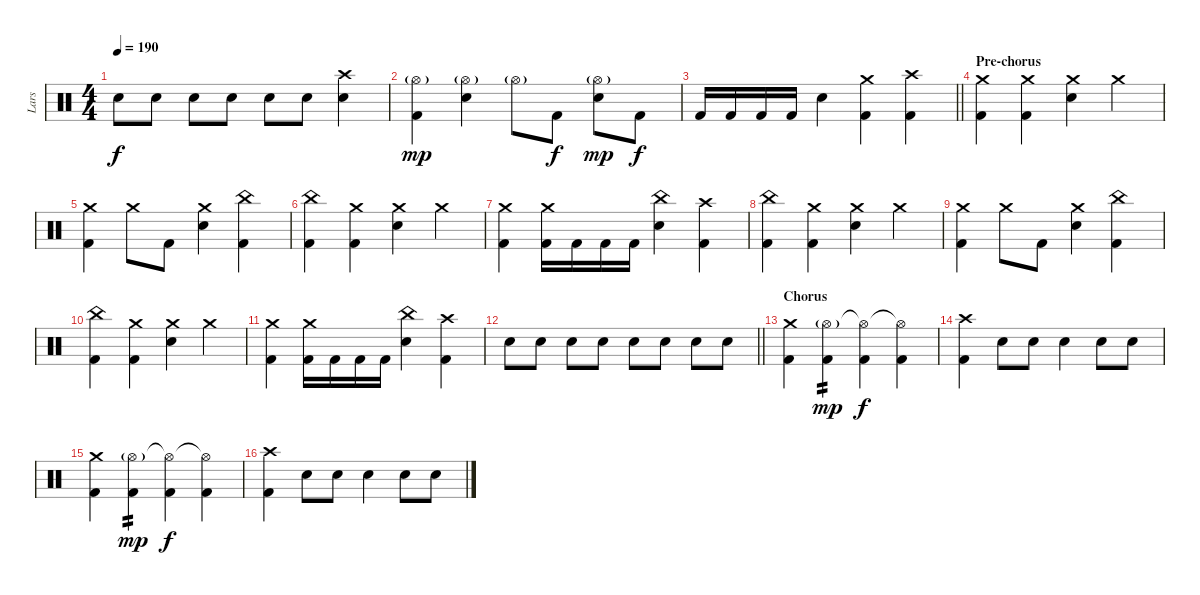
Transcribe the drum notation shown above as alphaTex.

\track ("Lars" "Lars") {instrument percussion}
\staff {score}
\articulation defaults
\ts (4 4)
\tempo 190
\clef neutral
\ks c "Electric Snare (hit)".8{dy f} "Electric Snare (hit)".8 "Electric Snare (hit)".8 "Electric Snare (hit)".8 "Electric Snare (hit)".8 "Electric Snare (hit)".8
("Crash high (hit)" "Electric Snare (hit)").4 |
("Hi-Hat (open)"{g} "Kick (hit) 2").4{dy mp} ("Hi-Hat (open)"{g} "Electric Snare (hit)").4 "Hi-Hat (open)"{g}.8 "Kick (hit) 2".8{dy f} ("Hi-Hat (open)"{g} "Electric Snare (hit)").8{dy mp} "Kick (hit) 2".8{dy f} |
\barLineRight lightlight "Kick (hit) 2".16 "Kick (hit) 2".16 "Kick (hit) 2".16 "Kick (hit) 2".16 "Electric Snare (hit)".4
("Crash medium (hit)" "Kick (hit) 2").4 ("Crash high (hit)" "Kick (hit) 2").4 |
\section ("" "Pre-chorus")
("Crash medium (hit)" "Kick (hit) 2").4 ("Crash medium (hit)" "Kick (hit) 2").4 ("Crash medium (hit)" "Electric Snare (hit)").4 "Crash medium (hit)".4 |
("Crash medium (hit)" "Kick (hit) 2").4 "Crash medium (hit)".8 "Kick (hit) 2".8 ("Crash medium (hit)" "Electric Snare (hit)").4 ("China (hit)" "Kick (hit) 2").4 |
("China (hit)" "Kick (hit) 2").4 ("Crash medium (hit)" "Kick (hit) 2").4 ("Crash medium (hit)" "Electric Snare (hit)").4 "Crash medium (hit)".4 |
("Crash medium (hit)" "Kick (hit) 2").4 ("Crash medium (hit)" "Kick (hit) 2").16 "Kick (hit) 2".16 "Kick (hit) 2".16 "Kick (hit) 2".16 ("China (hit)" "Electric Snare (hit)").4 ("Crash high (hit)" "Kick (hit) 2").4 |
("China (hit)" "Kick (hit) 2").4 ("Crash medium (hit)" "Kick (hit) 2").4 ("Crash medium (hit)" "Electric Snare (hit)").4 "Crash medium (hit)".4 |
("Crash medium (hit)" "Kick (hit) 2").4 "Crash medium (hit)".8 "Kick (hit) 2".8 ("Crash medium (hit)" "Electric Snare (hit)").4 ("China (hit)" "Kick (hit) 2").4 |
("China (hit)" "Kick (hit) 2").4 ("Crash medium (hit)" "Kick (hit) 2").4 ("Crash medium (hit)" "Electric Snare (hit)").4 "Crash medium (hit)".4 |
("Crash medium (hit)" "Kick (hit) 2").4 ("Crash medium (hit)" "Kick (hit) 2").16 "Kick (hit) 2".16 "Kick (hit) 2".16 "Kick (hit) 2".16 ("China (hit)" "Electric Snare (hit)").4 ("Crash high (hit)" "Kick (hit) 2").4 |
\barLineRight lightlight "Electric Snare (hit)".8 "Electric Snare (hit)".8 "Electric Snare (hit)".8 "Electric Snare (hit)".8 "Electric Snare (hit)".8 "Electric Snare (hit)".8 "Electric Snare (hit)".8 "Electric Snare (hit)".8
|
\section ("" "Chorus")
("Crash medium (hit)" "Kick (hit) 2").4 ("Hi-Hat (open)"{g} "Kick (hit) 2").4{tp 2 dy mp} ("Hi-Hat (open)"{t} "Kick (hit) 2").4{dy f} ("Hi-Hat (open)"{t} "Kick (hit) 2").4 |
("Crash high (hit)" "Kick (hit) 2").4 "Electric Snare (hit)".8 "Electric Snare (hit)".8 "Electric Snare (hit)".4 "Electric Snare (hit)".8 "Electric Snare (hit)".8 |
("Crash medium (hit)" "Kick (hit) 2").4 ("Hi-Hat (open)"{g} "Kick (hit) 2").4{tp 2 dy mp} ("Hi-Hat (open)"{t} "Kick (hit) 2").4{dy f} ("Hi-Hat (open)"{t} "Kick (hit) 2").4 |
("Crash high (hit)" "Kick (hit) 2").4 "Electric Snare (hit)".8 "Electric Snare (hit)".8 "Electric Snare (hit)".4 "Electric Snare (hit)".8 "Electric Snare (hit)".8
